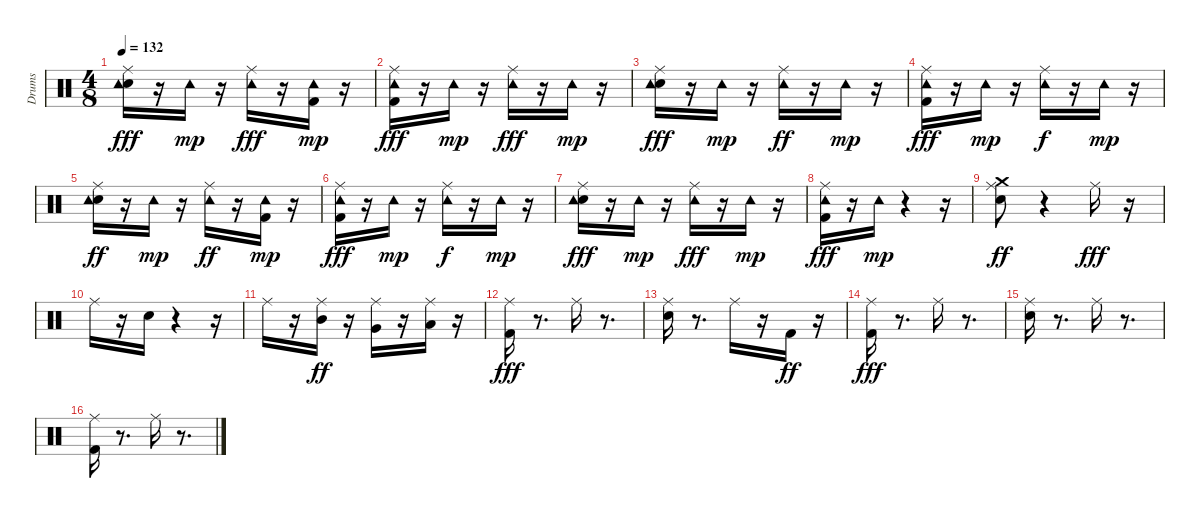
\track ("Drums" "Drums") {instrument percussion}
\staff {score}
\articulation defaults
\ts (4 8)
\tempo 132
\clef neutral
\ks c
("Snare (hit) 2" "Ride (middle)" "Tambourine (hit)").16{dy fff} r.16 "Tambourine (hit)".16{dy mp} r.16 ("Ride (middle)" "Tambourine (hit)").16{dy fff} r.16 ("Kick (hit) 2" "Tambourine (hit)").16{dy mp} r.16 |
("Kick (hit) 2" "Ride (middle)" "Tambourine (hit)").16{dy fff} r.16 "Tambourine (hit)".16{dy mp} r.16 ("Ride (middle)" "Tambourine (hit)").16{dy fff} r.16 "Tambourine (hit)".16{dy mp} r.16 |
("Snare (hit) 2" "Ride (middle)" "Tambourine (hit)").16{dy fff} r.16 "Tambourine (hit)".16{dy mp} r.16 ("Ride (middle)" "Tambourine (hit)").16{dy ff} r.16 "Tambourine (hit)".16{dy mp} r.16 |
("Kick (hit) 2" "Ride (middle)" "Tambourine (hit)").16{dy fff} r.16 "Tambourine (hit)".16{dy mp} r.16 ("Ride (middle)" "Tambourine (hit)").16{dy f} r.16 "Tambourine (hit)".16{dy mp} r.16 |
("Snare (hit) 2" "Ride (middle)" "Tambourine (hit)").16{dy ff} r.16 "Tambourine (hit)".16{dy mp} r.16 ("Ride (middle)" "Tambourine (hit)").16{dy ff} r.16 ("Kick (hit) 2" "Tambourine (hit)").16{dy mp} r.16 |
("Kick (hit) 2" "Ride (middle)" "Tambourine (hit)").16{dy fff} r.16 "Tambourine (hit)".16{dy mp} r.16 ("Ride (middle)" "Tambourine (hit)").16{dy f} r.16 "Tambourine (hit)".16{dy mp} r.16 |
("Snare (hit) 2" "Ride (middle)" "Tambourine (hit)").16{dy fff} r.16 "Tambourine (hit)".16{dy mp} r.16 ("Ride (middle)" "Tambourine (hit)").16{dy fff} r.16 "Tambourine (hit)".16{dy mp} r.16 |
("Kick (hit) 2" "Ride (middle)" "Tambourine (hit)").16{dy fff} r.16 "Tambourine (hit)".16{dy mp} r.4 r.16 |
("Snare (hit) 2" "Ride (middle)" "Crash medium (hit)").8{dy ff} r.4 "Ride (middle)".16{dy fff} r.16 |
"Ride (middle)".16 r.16 "Snare (hit) 2".16 r.4 r.16 |
"Ride (middle)".16 r.16 ("Ride (middle)" "Mid Tom (hit)").16{dy ff} r.16 ("Ride (middle)" "Very Low Tom (hit)").16 r.16 ("Ride (middle)" "Low Floor Tom (hit)").16 r.16 |
("Kick (hit) 2" "Ride (middle)").16{dy fff} r.8{d} "Ride (middle)".16 r.8{d} |
("Snare (hit) 2" "Ride (middle)").16 r.8{d} "Ride (middle)".16 r.16 "Kick (hit) 2".16{dy ff} r.16 |
("Kick (hit) 2" "Ride (middle)").16{dy fff} r.8{d} "Ride (middle)".16 r.8{d} |
("Snare (hit) 2" "Ride (middle)").16 r.8{d} "Ride (middle)".16 r.8{d} |
("Kick (hit) 2" "Ride (middle)").16 r.8{d} "Ride (middle)".16 r.8{d}
